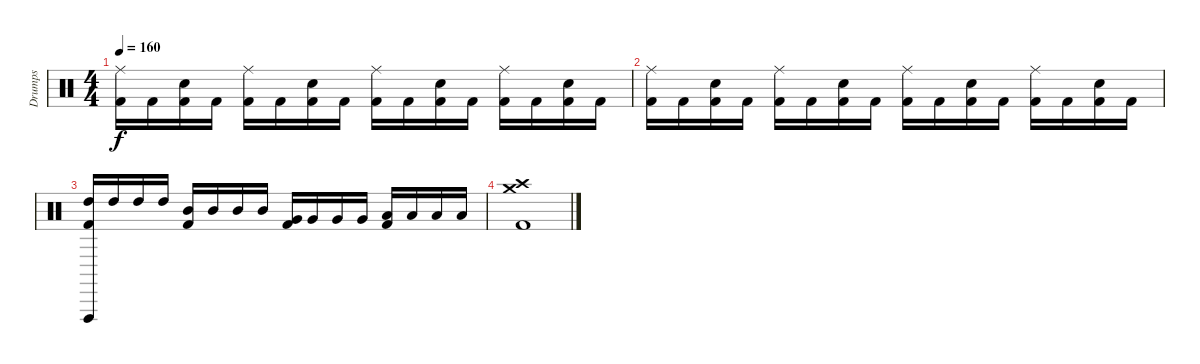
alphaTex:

\track ("Drumps" "Drumps") {instrument percussion}
\staff {score}
\articulation defaults
\ts (4 4)
\tempo 160
\clef neutral
\ks c
("Ride (middle)" "Kick (hit) 2").16{dy f} "Kick (hit) 2".16 ("Electric Snare (hit)" "Kick (hit) 2").16 "Kick (hit) 2".16 ("Ride (middle)" "Kick (hit) 2").16 "Kick (hit) 2".16 ("Electric Snare (hit)" "Kick (hit) 2").16 "Kick (hit) 2".16 ("Ride (middle)" "Kick (hit) 2").16 "Kick (hit) 2".16 ("Electric Snare (hit)" "Kick (hit) 2").16 "Kick (hit) 2".16 ("Ride (middle)" "Kick (hit) 2").16 "Kick (hit) 2".16 ("Electric Snare (hit)" "Kick (hit) 2").16 "Kick (hit) 2".16 |
("Ride (middle)" "Kick (hit) 2").16 "Kick (hit) 2".16 ("Electric Snare (hit)" "Kick (hit) 2").16 "Kick (hit) 2".16 ("Ride (middle)" "Kick (hit) 2").16 "Kick (hit) 2".16 ("Electric Snare (hit)" "Kick (hit) 2").16 "Kick (hit) 2".16 ("Ride (middle)" "Kick (hit) 2").16 "Kick (hit) 2".16 ("Electric Snare (hit)" "Kick (hit) 2").16 "Kick (hit) 2".16 ("Ride (middle)" "Kick (hit) 2").16 "Kick (hit) 2".16 ("Electric Snare (hit)" "Kick (hit) 2").16 "Kick (hit) 2".16 |
("Vibraslap (hit)" "High Tom (hit)" "Kick (hit) 2").16 "High Tom (hit)".16 "High Tom (hit)".16 "High Tom (hit)".16 ("Mid Tom (hit)" "Kick (hit) 2").16 "Mid Tom (hit)".16 "Mid Tom (hit)".16 "Mid Tom (hit)".16 ("Very Low Tom (hit)" "Kick (hit) 2").16 "Very Low Tom (hit)".16 "Very Low Tom (hit)".16 "Very Low Tom (hit)".16 ("Low Floor Tom (hit)" "Kick (hit) 2").16 "Low Floor Tom (hit)".16 "Low Floor Tom (hit)".16 "Low Floor Tom (hit)".16 |
("Crash medium (hit)" "Kick (hit) 2" "Crash high (hit)").1
